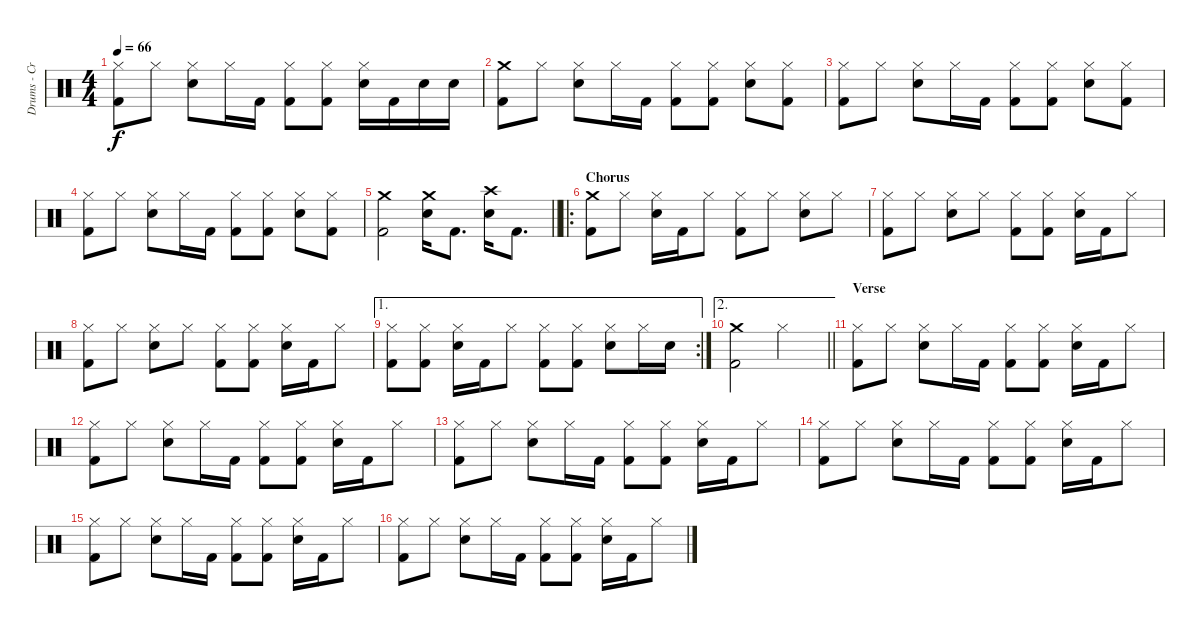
\track ("Drums - Craig" "Drums - Cr") {instrument percussion}
\staff {score}
\articulation defaults
\ts (4 4)
\tempo 66
\clef neutral
\ks c
("Hi-Hat (closed)" "Kick (hit) 2").8{dy f} "Hi-Hat (closed)".8 ("Hi-Hat (closed)" "Snare (hit) 2").8 "Hi-Hat (closed)".16 "Kick (hit) 2".16 ("Hi-Hat (closed)" "Kick (hit) 2").8 ("Hi-Hat (closed)" "Kick (hit) 2").8 ("Hi-Hat (closed)" "Snare (hit) 2").16 "Kick (hit) 2".16 "Snare (hit) 2".16 "Snare (hit) 2".16 |
("Crash medium (hit)" "Kick (hit) 2").8 "Hi-Hat (closed)".8 ("Hi-Hat (closed)" "Snare (hit) 2").8 "Hi-Hat (closed)".16 "Kick (hit) 2".16 ("Hi-Hat (closed)" "Kick (hit) 2").8 ("Hi-Hat (closed)" "Kick (hit) 2").8 ("Hi-Hat (closed)" "Snare (hit) 2").8 ("Hi-Hat (closed)" "Kick (hit) 2").8 |
("Hi-Hat (closed)" "Kick (hit) 2").8 "Hi-Hat (closed)".8 ("Hi-Hat (closed)" "Snare (hit) 2").8 "Hi-Hat (closed)".16 "Kick (hit) 2".16 ("Hi-Hat (closed)" "Kick (hit) 2").8 ("Hi-Hat (closed)" "Kick (hit) 2").8 ("Hi-Hat (closed)" "Snare (hit) 2").8 ("Hi-Hat (closed)" "Kick (hit) 2").8 |
("Hi-Hat (closed)" "Kick (hit) 2").8 "Hi-Hat (closed)".8 ("Hi-Hat (closed)" "Snare (hit) 2").8 "Hi-Hat (closed)".16 "Kick (hit) 2".16 ("Hi-Hat (closed)" "Kick (hit) 2").8 ("Hi-Hat (closed)" "Kick (hit) 2").8 ("Hi-Hat (closed)" "Snare (hit) 2").8 ("Hi-Hat (closed)" "Kick (hit) 2").8 |
\barLineRight lightlight
("Crash medium (hit)" "Kick (hit) 2").2 ("Crash medium (hit)" "Snare (hit) 2").16 "Kick (hit) 2".8{d} ("Crash high (hit)" "Snare (hit) 2").16 "Kick (hit) 2".8{d} |
\ro
\section ("" "Chorus")
("Crash medium (hit)" "Kick (hit) 2").8 "Hi-Hat (closed)".8 ("Hi-Hat (closed)" "Snare (hit) 2").16 "Kick (hit) 2".16 "Hi-Hat (closed)".8 ("Hi-Hat (closed)" "Kick (hit) 2").8 "Hi-Hat (closed)".8 ("Hi-Hat (closed)" "Snare (hit) 2").8 "Hi-Hat (closed)".8 |
("Hi-Hat (closed)" "Kick (hit) 2").8 "Hi-Hat (closed)".8 ("Hi-Hat (closed)" "Snare (hit) 2").8 "Hi-Hat (closed)".8 ("Hi-Hat (closed)" "Kick (hit) 2").8 ("Hi-Hat (closed)" "Kick (hit) 2").8 ("Hi-Hat (closed)" "Snare (hit) 2").16 "Kick (hit) 2".16 "Hi-Hat (closed)".8 |
("Hi-Hat (closed)" "Kick (hit) 2").8 "Hi-Hat (closed)".8 ("Hi-Hat (closed)" "Snare (hit) 2").8 "Hi-Hat (closed)".8 ("Hi-Hat (closed)" "Kick (hit) 2").8 ("Hi-Hat (closed)" "Kick (hit) 2").8 ("Hi-Hat (closed)" "Snare (hit) 2").16 "Kick (hit) 2".16 "Hi-Hat (closed)".8 |
\ae 1
\rc 2
("Hi-Hat (closed)" "Kick (hit) 2").8 ("Hi-Hat (closed)" "Kick (hit) 2").8 ("Hi-Hat (closed)" "Snare (hit) 2").16 "Kick (hit) 2".16 "Hi-Hat (closed)".8 ("Hi-Hat (closed)" "Kick (hit) 2").8 ("Hi-Hat (closed)" "Kick (hit) 2").8 ("Hi-Hat (closed)" "Snare (hit) 2").8 "Hi-Hat (closed)".16 "Snare (hit) 2".16 |
\ae 2
\barLineRight lightlight
("Crash medium (hit)" "Kick (hit) 2").2 "Hi-Hat (closed)".2 |
\section ("" "Verse")
("Hi-Hat (closed)" "Kick (hit) 2").8 "Hi-Hat (closed)".8 ("Hi-Hat (closed)" "Snare (hit) 2").8 "Hi-Hat (closed)".16 "Kick (hit) 2".16 ("Hi-Hat (closed)" "Kick (hit) 2").8 ("Hi-Hat (closed)" "Kick (hit) 2").8 ("Hi-Hat (closed)" "Snare (hit) 2").16 "Kick (hit) 2".16 "Hi-Hat (closed)".8 |
("Hi-Hat (closed)" "Kick (hit) 2").8 "Hi-Hat (closed)".8 ("Hi-Hat (closed)" "Snare (hit) 2").8 "Hi-Hat (closed)".16 "Kick (hit) 2".16 ("Hi-Hat (closed)" "Kick (hit) 2").8 ("Hi-Hat (closed)" "Kick (hit) 2").8 ("Hi-Hat (closed)" "Snare (hit) 2").16 "Kick (hit) 2".16 "Hi-Hat (closed)".8 |
("Hi-Hat (closed)" "Kick (hit) 2").8 "Hi-Hat (closed)".8 ("Hi-Hat (closed)" "Snare (hit) 2").8 "Hi-Hat (closed)".16 "Kick (hit) 2".16 ("Hi-Hat (closed)" "Kick (hit) 2").8 ("Hi-Hat (closed)" "Kick (hit) 2").8 ("Hi-Hat (closed)" "Snare (hit) 2").16 "Kick (hit) 2".16 "Hi-Hat (closed)".8 |
("Hi-Hat (closed)" "Kick (hit) 2").8 "Hi-Hat (closed)".8 ("Hi-Hat (closed)" "Snare (hit) 2").8 "Hi-Hat (closed)".16 "Kick (hit) 2".16 ("Hi-Hat (closed)" "Kick (hit) 2").8 ("Hi-Hat (closed)" "Kick (hit) 2").8 ("Hi-Hat (closed)" "Snare (hit) 2").16 "Kick (hit) 2".16 "Hi-Hat (closed)".8 |
("Hi-Hat (closed)" "Kick (hit) 2").8 "Hi-Hat (closed)".8 ("Hi-Hat (closed)" "Snare (hit) 2").8 "Hi-Hat (closed)".16 "Kick (hit) 2".16 ("Hi-Hat (closed)" "Kick (hit) 2").8 ("Hi-Hat (closed)" "Kick (hit) 2").8 ("Hi-Hat (closed)" "Snare (hit) 2").16 "Kick (hit) 2".16 "Hi-Hat (closed)".8 |
("Hi-Hat (closed)" "Kick (hit) 2").8 "Hi-Hat (closed)".8 ("Hi-Hat (closed)" "Snare (hit) 2").8 "Hi-Hat (closed)".16 "Kick (hit) 2".16 ("Hi-Hat (closed)" "Kick (hit) 2").8 ("Hi-Hat (closed)" "Kick (hit) 2").8 ("Hi-Hat (closed)" "Snare (hit) 2").16 "Kick (hit) 2".16 "Hi-Hat (closed)".8
